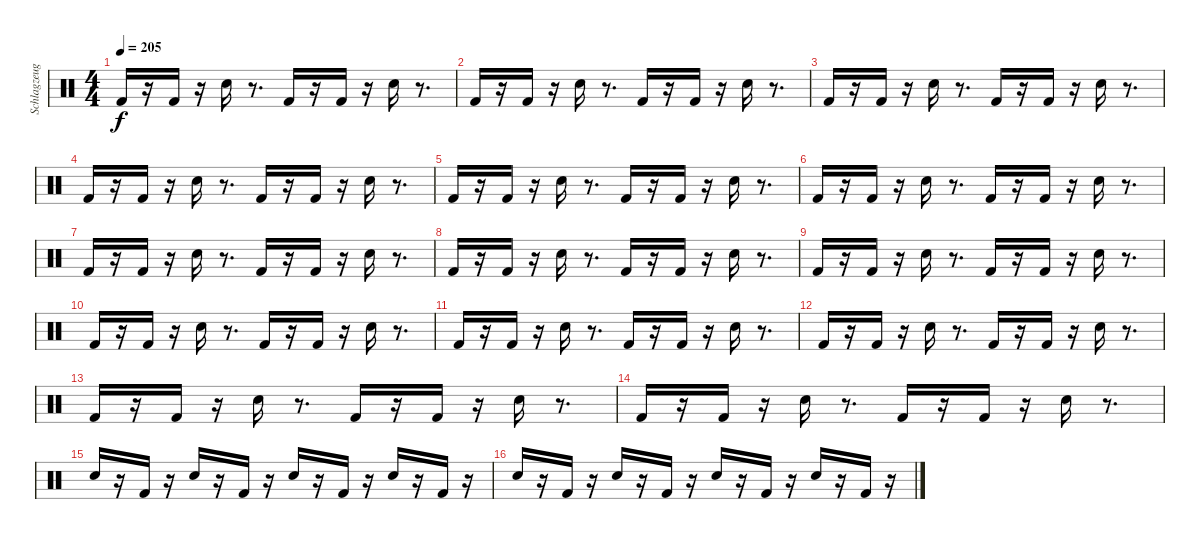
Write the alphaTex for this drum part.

\track ("Schlagzeug - Bela B." "Schlagzeug") {instrument percussion}
\staff {score}
\articulation defaults
\ts (4 4)
\tempo 205
\clef neutral
\ks c "Kick (hit) 2".16{dy f}
r.16 "Kick (hit) 2".16 r.16 "Electric Snare (hit)".16 r.8{d} "Kick (hit) 2".16 r.16 "Kick (hit) 2".16 r.16 "Electric Snare (hit)".16 r.8{d} |
"Kick (hit) 2".16 r.16 "Kick (hit) 2".16 r.16 "Electric Snare (hit)".16 r.8{d} "Kick (hit) 2".16 r.16 "Kick (hit) 2".16 r.16 "Electric Snare (hit)".16 r.8{d} |
"Kick (hit) 2".16 r.16 "Kick (hit) 2".16 r.16 "Electric Snare (hit)".16 r.8{d} "Kick (hit) 2".16 r.16 "Kick (hit) 2".16 r.16 "Electric Snare (hit)".16 r.8{d} |
"Kick (hit) 2".16 r.16 "Kick (hit) 2".16 r.16 "Electric Snare (hit)".16 r.8{d} "Kick (hit) 2".16 r.16 "Kick (hit) 2".16 r.16 "Electric Snare (hit)".16 r.8{d} |
"Kick (hit) 2".16 r.16 "Kick (hit) 2".16 r.16 "Electric Snare (hit)".16 r.8{d} "Kick (hit) 2".16 r.16 "Kick (hit) 2".16 r.16 "Electric Snare (hit)".16 r.8{d} |
"Kick (hit) 2".16 r.16 "Kick (hit) 2".16 r.16 "Electric Snare (hit)".16 r.8{d} "Kick (hit) 2".16 r.16 "Kick (hit) 2".16 r.16 "Electric Snare (hit)".16 r.8{d} |
"Kick (hit) 2".16 r.16 "Kick (hit) 2".16 r.16 "Electric Snare (hit)".16 r.8{d} "Kick (hit) 2".16 r.16 "Kick (hit) 2".16 r.16 "Electric Snare (hit)".16 r.8{d} |
"Kick (hit) 2".16 r.16 "Kick (hit) 2".16 r.16 "Electric Snare (hit)".16 r.8{d} "Kick (hit) 2".16 r.16 "Kick (hit) 2".16 r.16 "Electric Snare (hit)".16 r.8{d} |
"Kick (hit) 2".16 r.16 "Kick (hit) 2".16 r.16 "Electric Snare (hit)".16 r.8{d} "Kick (hit) 2".16 r.16 "Kick (hit) 2".16 r.16 "Electric Snare (hit)".16 r.8{d} |
"Kick (hit) 2".16 r.16 "Kick (hit) 2".16 r.16 "Electric Snare (hit)".16 r.8{d} "Kick (hit) 2".16 r.16 "Kick (hit) 2".16 r.16 "Electric Snare (hit)".16 r.8{d} |
"Kick (hit) 2".16 r.16 "Kick (hit) 2".16 r.16 "Electric Snare (hit)".16 r.8{d} "Kick (hit) 2".16 r.16 "Kick (hit) 2".16 r.16 "Electric Snare (hit)".16 r.8{d} |
"Kick (hit) 2".16 r.16 "Kick (hit) 2".16 r.16 "Electric Snare (hit)".16 r.8{d} "Kick (hit) 2".16 r.16 "Kick (hit) 2".16 r.16 "Electric Snare (hit)".16 r.8{d} |
"Kick (hit) 2".16 r.16 "Kick (hit) 2".16 r.16 "Electric Snare (hit)".16 r.8{d} "Kick (hit) 2".16 r.16 "Kick (hit) 2".16 r.16 "Electric Snare (hit)".16 r.8{d} |
"Kick (hit) 2".16 r.16 "Kick (hit) 2".16 r.16 "Electric Snare (hit)".16 r.8{d} "Kick (hit) 2".16 r.16 "Kick (hit) 2".16 r.16 "Electric Snare (hit)".16 r.8{d} |
"Electric Snare (hit)".16 r.16 "Kick (hit) 2".16 r.16 "Electric Snare (hit)".16 r.16 "Kick (hit) 2".16 r.16 "Electric Snare (hit)".16 r.16 "Kick (hit) 2".16 r.16 "Electric Snare (hit)".16 r.16 "Kick (hit) 2".16 r.16 |
"Electric Snare (hit)".16 r.16 "Kick (hit) 2".16 r.16 "Electric Snare (hit)".16 r.16 "Kick (hit) 2".16 r.16 "Electric Snare (hit)".16 r.16 "Kick (hit) 2".16 r.16 "Electric Snare (hit)".16 r.16 "Kick (hit) 2".16 r.16
